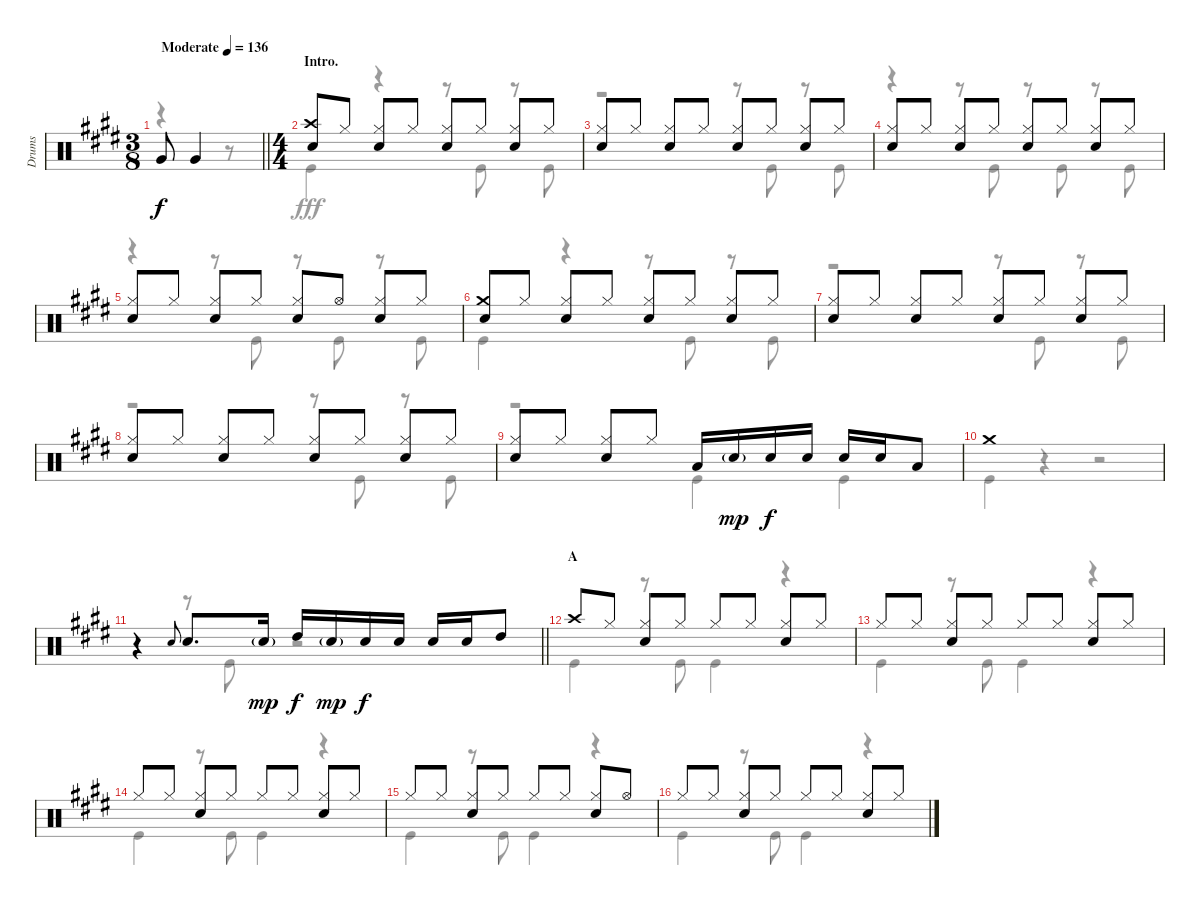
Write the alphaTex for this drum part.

\track ("Drums" "Drums") {instrument percussion}
\staff {score}
\articulation defaults
\voice
\ts (3 8)
\tempo (136 "Moderate")
\clef neutral
\barLineRight lightlight
\ks e "Very Low Tom (hit)".8{dy f} "Very Low Tom (hit)".4
|
\ts (4 4)
\section ("" "Intro.")
("Crash high (hit)" "Snare (hit) 2").8 "Hi-Hat (closed)".8 ("Hi-Hat (closed)" "Snare (hit) 2").8 "Hi-Hat (closed)".8 ("Hi-Hat (closed)" "Snare (hit) 2").8 "Hi-Hat (closed)".8 ("Hi-Hat (closed)" "Snare (hit) 2").8 "Hi-Hat (closed)".8 |
("Hi-Hat (closed)" "Snare (hit) 2").8 "Hi-Hat (closed)".8 ("Hi-Hat (closed)" "Snare (hit) 2").8 "Hi-Hat (closed)".8 ("Hi-Hat (closed)" "Snare (hit) 2").8 "Hi-Hat (closed)".8 ("Hi-Hat (closed)" "Snare (hit) 2").8 "Hi-Hat (closed)".8 |
("Hi-Hat (closed)" "Snare (hit) 2").8 "Hi-Hat (closed)".8 ("Hi-Hat (closed)" "Snare (hit) 2").8 "Hi-Hat (closed)".8 ("Hi-Hat (closed)" "Snare (hit) 2").8 "Hi-Hat (closed)".8 ("Hi-Hat (closed)" "Snare (hit) 2").8 "Hi-Hat (closed)".8 |
("Hi-Hat (closed)" "Snare (hit) 2").8 "Hi-Hat (closed)".8 ("Hi-Hat (closed)" "Snare (hit) 2").8 "Hi-Hat (closed)".8 ("Hi-Hat (closed)" "Snare (hit) 2").8 "Hi-Hat (open)".8 ("Hi-Hat (closed)" "Snare (hit) 2").8 "Hi-Hat (closed)".8 |
("Crash medium (hit)" "Snare (hit) 2").8 "Hi-Hat (closed)".8 ("Hi-Hat (closed)" "Snare (hit) 2").8 "Hi-Hat (closed)".8 ("Hi-Hat (closed)" "Snare (hit) 2").8 "Hi-Hat (closed)".8 ("Hi-Hat (closed)" "Snare (hit) 2").8 "Hi-Hat (closed)".8 |
("Hi-Hat (closed)" "Snare (hit) 2").8 "Hi-Hat (closed)".8 ("Hi-Hat (closed)" "Snare (hit) 2").8 "Hi-Hat (closed)".8 ("Hi-Hat (closed)" "Snare (hit) 2").8 "Hi-Hat (closed)".8 ("Hi-Hat (closed)" "Snare (hit) 2").8 "Hi-Hat (closed)".8 |
("Hi-Hat (closed)" "Snare (hit) 2").8 "Hi-Hat (closed)".8 ("Hi-Hat (closed)" "Snare (hit) 2").8 "Hi-Hat (closed)".8 ("Hi-Hat (closed)" "Snare (hit) 2").8 "Hi-Hat (closed)".8 ("Hi-Hat (closed)" "Snare (hit) 2").8 "Hi-Hat (closed)".8 |
("Hi-Hat (closed)" "Snare (hit) 2").8 "Hi-Hat (closed)".8 ("Hi-Hat (closed)" "Snare (hit) 2").8 "Hi-Hat (closed)".8 "Low Tom (hit)".16 "Snare (hit) 2"{g}.16{dy mp} "Snare (hit) 2".16{dy f} "Snare (hit) 2".16 "Snare (hit) 2".16 "Snare (hit) 2".16 "Low Tom (hit)".8 |
"Crash medium (hit)".1 |
\barLineRight lightlight
r.4 "Snare (hit) 2".8{gr onbeat} "Snare (hit) 2".8{d} "Snare (hit) 2"{g}.16{dy mp} "High Tom (hit)".16{dy f} "Snare (hit) 2"{g}.16{dy mp} "Snare (hit) 2".16{dy f} "Snare (hit) 2".16 "Snare (hit) 2".16 "Snare (hit) 2".16 "High Tom (hit)".8 |
\section ("" "A")
"Crash high (hit)".8 "Hi-Hat (closed)".8 ("Hi-Hat (closed)" "Snare (hit) 2").8 "Hi-Hat (closed)".8 "Hi-Hat (closed)".8 "Hi-Hat (closed)".8 ("Hi-Hat (closed)" "Snare (hit) 2").8 "Hi-Hat (closed)".8 |
"Hi-Hat (closed)".8 "Hi-Hat (closed)".8 ("Hi-Hat (closed)" "Snare (hit) 2").8 "Hi-Hat (closed)".8 "Hi-Hat (closed)".8 "Hi-Hat (closed)".8 ("Hi-Hat (closed)" "Snare (hit) 2").8 "Hi-Hat (closed)".8 |
"Hi-Hat (closed)".8 "Hi-Hat (closed)".8 ("Hi-Hat (closed)" "Snare (hit) 2").8 "Hi-Hat (closed)".8 "Hi-Hat (closed)".8 "Hi-Hat (closed)".8 ("Hi-Hat (closed)" "Snare (hit) 2").8 "Hi-Hat (closed)".8 |
"Hi-Hat (closed)".8 "Hi-Hat (closed)".8 ("Hi-Hat (closed)" "Snare (hit) 2").8 "Hi-Hat (closed)".8 "Hi-Hat (closed)".8 "Hi-Hat (closed)".8 ("Hi-Hat (closed)" "Snare (hit) 2").8 "Hi-Hat (open)".8 |
"Hi-Hat (closed)".8 "Hi-Hat (closed)".8 ("Hi-Hat (closed)" "Snare (hit) 2").8 "Hi-Hat (closed)".8 "Hi-Hat (closed)".8 "Hi-Hat (closed)".8 ("Hi-Hat (closed)" "Snare (hit) 2").8 "Hi-Hat (closed)".8
\voice
\clef neutral
\ottava regular
\simile none
\barLineRight lightlight
\ks e
r.4{dy fff} r.8 |
"Kick (hit)".4 r.4 r.8 "Kick (hit)".8 r.8 "Kick (hit)".8 |
r.2 r.8 "Kick (hit)".8 r.8 "Kick (hit)".8 |
r.4 r.8 "Kick (hit)".8 r.8 "Kick (hit)".8 r.8 "Kick (hit)".8 |
r.4 r.8 "Kick (hit)".8 r.8 "Kick (hit)".8 r.8 "Kick (hit)".8 |
"Kick (hit)".4 r.4 r.8 "Kick (hit)".8 r.8 "Kick (hit)".8 |
r.2 r.8 "Kick (hit)".8 r.8 "Kick (hit)".8 |
r.2 r.8 "Kick (hit)".8 r.8 "Kick (hit)".8 |
r.2 "Kick (hit)".4 "Kick (hit)".4 |
"Kick (hit)".4 r.4 r.2 |
\barLineRight lightlight
r.4 r.8 "Kick (hit)".8 r.2 |
"Kick (hit)".4 r.8 "Kick (hit)".8 "Kick (hit)".4 r.4 |
"Kick (hit)".4 r.8 "Kick (hit)".8 "Kick (hit)".4 r.4 |
"Kick (hit)".4 r.8 "Kick (hit)".8 "Kick (hit)".4 r.4 |
"Kick (hit)".4 r.8 "Kick (hit)".8 "Kick (hit)".4 r.4 |
"Kick (hit)".4 r.8 "Kick (hit)".8 "Kick (hit)".4 r.4
